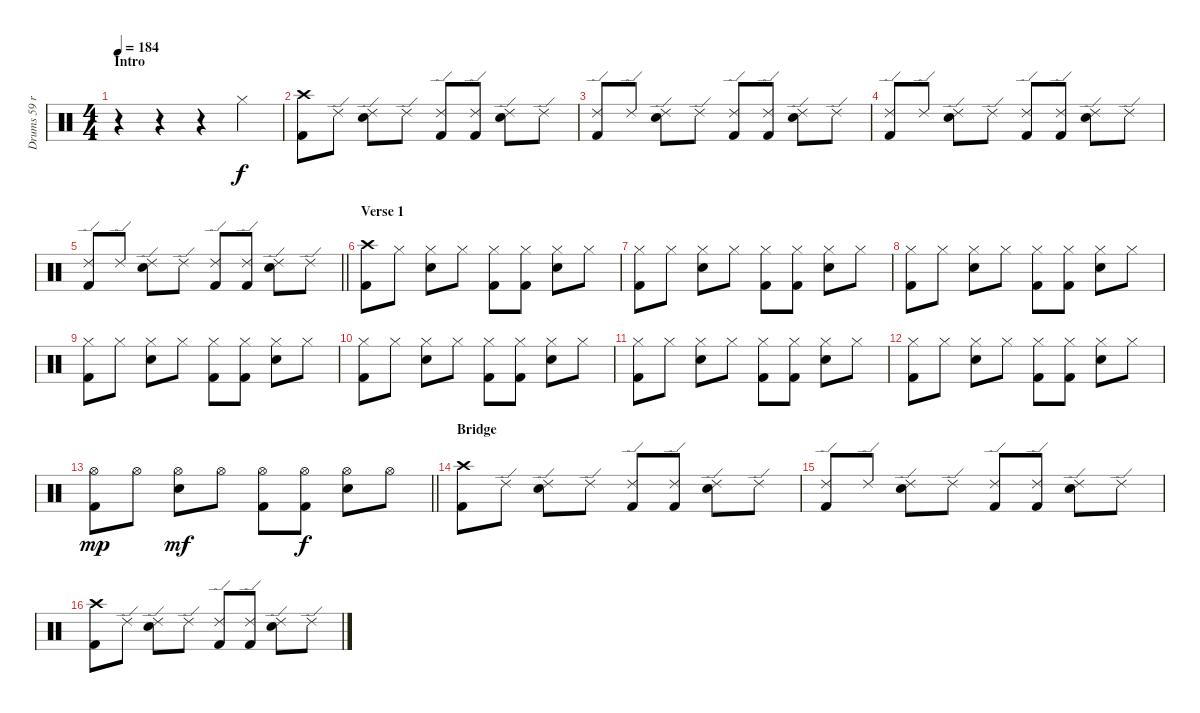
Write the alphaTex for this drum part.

\track ("Drums 59 ride" "Drums 59 r") {mute instrument percussion}
\staff {score}
\articulation defaults
\ts (4 4)
\section ("" "Intro")
\tempo 184
\clef neutral
\ks c
r.4{dy f} r.4 r.4 "Hi-Hat (closed)".4 |
("Crash high (hit)" "Kick (hit) 2").8 "Ride (edge) 2".8 ("Ride (edge) 2" "Snare (hit) 2").8 "Ride (edge) 2".8 ("Ride (edge) 2" "Kick (hit) 2").8 ("Ride (edge) 2" "Kick (hit) 2").8 ("Ride (edge) 2" "Snare (hit) 2").8 "Ride (edge) 2".8 |
("Ride (edge) 2" "Kick (hit) 2").8 "Ride (edge) 2".8 ("Ride (edge) 2" "Snare (hit) 2").8 "Ride (edge) 2".8 ("Ride (edge) 2" "Kick (hit) 2").8 ("Ride (edge) 2" "Kick (hit) 2").8 ("Ride (edge) 2" "Snare (hit) 2").8 "Ride (edge) 2".8 |
("Ride (edge) 2" "Kick (hit) 2").8 "Ride (edge) 2".8 ("Ride (edge) 2" "Snare (hit) 2").8 "Ride (edge) 2".8 ("Ride (edge) 2" "Kick (hit) 2").8 ("Ride (edge) 2" "Kick (hit) 2").8 ("Ride (edge) 2" "Snare (hit) 2").8 "Ride (edge) 2".8 |
\barLineRight lightlight
("Ride (edge) 2" "Kick (hit) 2").8 "Ride (edge) 2".8 ("Ride (edge) 2" "Snare (hit) 2").8 "Ride (edge) 2".8 ("Ride (edge) 2" "Kick (hit) 2").8 ("Ride (edge) 2" "Kick (hit) 2").8 ("Ride (edge) 2" "Snare (hit) 2").8 "Ride (edge) 2".8 |
\section ("" "Verse 1")
("Crash high (hit)" "Kick (hit) 2").8 "Hi-Hat (closed)".8 ("Hi-Hat (closed)" "Snare (hit) 2").8 "Hi-Hat (closed)".8 ("Hi-Hat (closed)" "Kick (hit) 2").8 ("Hi-Hat (closed)" "Kick (hit) 2").8 ("Hi-Hat (closed)" "Snare (hit) 2").8 "Hi-Hat (closed)".8 |
("Hi-Hat (closed)" "Kick (hit) 2").8 "Hi-Hat (closed)".8 ("Hi-Hat (closed)" "Snare (hit) 2").8 "Hi-Hat (closed)".8 ("Hi-Hat (closed)" "Kick (hit) 2").8 ("Hi-Hat (closed)" "Kick (hit) 2").8 ("Hi-Hat (closed)" "Snare (hit) 2").8 "Hi-Hat (closed)".8 |
("Hi-Hat (closed)" "Kick (hit) 2").8 "Hi-Hat (closed)".8 ("Hi-Hat (closed)" "Snare (hit) 2").8 "Hi-Hat (closed)".8 ("Hi-Hat (closed)" "Kick (hit) 2").8 ("Hi-Hat (closed)" "Kick (hit) 2").8 ("Hi-Hat (closed)" "Snare (hit) 2").8 "Hi-Hat (closed)".8 |
("Hi-Hat (closed)" "Kick (hit) 2").8 "Hi-Hat (closed)".8 ("Hi-Hat (closed)" "Snare (hit) 2").8 "Hi-Hat (closed)".8 ("Hi-Hat (closed)" "Kick (hit) 2").8 ("Hi-Hat (closed)" "Kick (hit) 2").8 ("Hi-Hat (closed)" "Snare (hit) 2").8 "Hi-Hat (closed)".8 |
("Hi-Hat (closed)" "Kick (hit) 2").8 "Hi-Hat (closed)".8 ("Hi-Hat (closed)" "Snare (hit) 2").8 "Hi-Hat (closed)".8 ("Hi-Hat (closed)" "Kick (hit) 2").8 ("Hi-Hat (closed)" "Kick (hit) 2").8 ("Hi-Hat (closed)" "Snare (hit) 2").8 "Hi-Hat (closed)".8 |
("Hi-Hat (closed)" "Kick (hit) 2").8 "Hi-Hat (closed)".8 ("Hi-Hat (closed)" "Snare (hit) 2").8 "Hi-Hat (closed)".8 ("Hi-Hat (closed)" "Kick (hit) 2").8 ("Hi-Hat (closed)" "Kick (hit) 2").8 ("Hi-Hat (closed)" "Snare (hit) 2").8 "Hi-Hat (closed)".8 |
("Hi-Hat (closed)" "Kick (hit) 2").8 "Hi-Hat (closed)".8 ("Hi-Hat (closed)" "Snare (hit) 2").8 "Hi-Hat (closed)".8 ("Hi-Hat (closed)" "Kick (hit) 2").8 ("Hi-Hat (closed)" "Kick (hit) 2").8 ("Hi-Hat (closed)" "Snare (hit) 2").8 "Hi-Hat (closed)".8 |
\barLineRight lightlight
("Hi-Hat (open)" "Kick (hit) 2").8{dy mp} "Hi-Hat (open)".8 ("Hi-Hat (open)" "Snare (hit) 2").8{dy mf} "Hi-Hat (open)".8 ("Hi-Hat (open)" "Kick (hit) 2").8 ("Hi-Hat (open)" "Kick (hit) 2").8{dy f} ("Hi-Hat (open)" "Snare (hit) 2").8 "Hi-Hat (open)".8 |
\section ("" "Bridge")
("Crash high (hit)" "Kick (hit) 2").8 "Ride (edge) 2".8 ("Ride (edge) 2" "Snare (hit) 2").8 "Ride (edge) 2".8 ("Ride (edge) 2" "Kick (hit) 2").8 ("Ride (edge) 2" "Kick (hit) 2").8 ("Ride (edge) 2" "Snare (hit) 2").8 "Ride (edge) 2".8 |
("Ride (edge) 2" "Kick (hit) 2").8 "Ride (edge) 2".8 ("Ride (edge) 2" "Snare (hit) 2").8 "Ride (edge) 2".8 ("Ride (edge) 2" "Kick (hit) 2").8 ("Ride (edge) 2" "Kick (hit) 2").8 ("Ride (edge) 2" "Snare (hit) 2").8 "Ride (edge) 2".8 |
("Crash high (hit)" "Kick (hit) 2").8 "Ride (edge) 2".8 ("Ride (edge) 2" "Snare (hit) 2").8 "Ride (edge) 2".8 ("Ride (edge) 2" "Kick (hit) 2").8 ("Ride (edge) 2" "Kick (hit) 2").8 ("Ride (edge) 2" "Snare (hit) 2").8 "Ride (edge) 2".8
